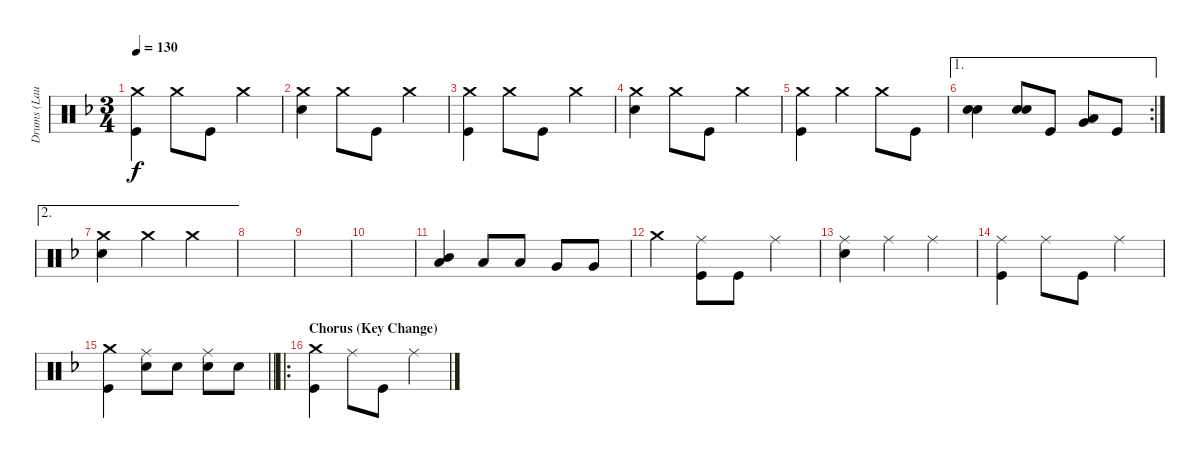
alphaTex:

\track ("Drums (Laura)" "Drums (Lau") {instrument percussion}
\staff {score}
\articulation defaults
\ts (3 4)
\tempo 130
\clef neutral
\ks dminor
("Crash medium (hit)" "Kick (hit)").4{dy f} "Crash medium (hit)".8 "Kick (hit)".8 "Crash medium (hit)".4 |
("Crash medium (hit)" "Snare (hit) 2").4 "Crash medium (hit)".8 "Kick (hit)".8 "Crash medium (hit)".4 |
("Crash medium (hit)" "Kick (hit)").4 "Crash medium (hit)".8 "Kick (hit)".8 "Crash medium (hit)".4 |
("Crash medium (hit)" "Snare (hit) 2").4 "Crash medium (hit)".8 "Kick (hit)".8 "Crash medium (hit)".4 |
("Crash medium (hit)" "Kick (hit)").4 "Crash medium (hit)".4 "Crash medium (hit)".8 "Kick (hit)".8 |
\ae 1
\rc 2
("Snare (hit) 2" "Snare (hit) 2").4 ("Snare (hit) 2" "Snare (hit) 2").8 "Kick (hit)".8 ("Low Floor Tom (hit)" "Very Low Tom (hit)").8 "Kick (hit)".8 |
\ae 2
("Crash medium (hit)" "Snare (hit) 2").4 "Crash medium (hit)".4 "Crash medium (hit)".4 |
|
|
|
("Mid Tom (hit)" "Low Tom (hit)").4 "Low Tom (hit)".8 "Low Tom (hit)".8 "Very Low Tom (hit)".8 "Very Low Tom (hit)".8 |
"Crash medium (hit)".4 ("Ride (middle)" "Kick (hit)").8 "Kick (hit)".8 "Ride (middle)".4 |
("Ride (middle)" "Snare (hit) 2").4 "Ride (middle)".4 "Ride (middle)".4 |
("Ride (middle)" "Kick (hit)").4 "Ride (middle)".8 "Kick (hit)".8 "Ride (middle)".4 |
\barLineRight lightlight
("Crash medium (hit)" "Kick (hit)").4 ("Ride (middle)" "Snare (hit) 2").8 "Snare (hit) 2".8 ("Ride (middle)" "Snare (hit) 2").8 "Snare (hit) 2".8 |
\ro
\section ("" "Chorus (Key Change)")
("Crash medium (hit)" "Kick (hit)").4 "Ride (middle)".8 "Kick (hit)".8 "Ride (middle)".4
